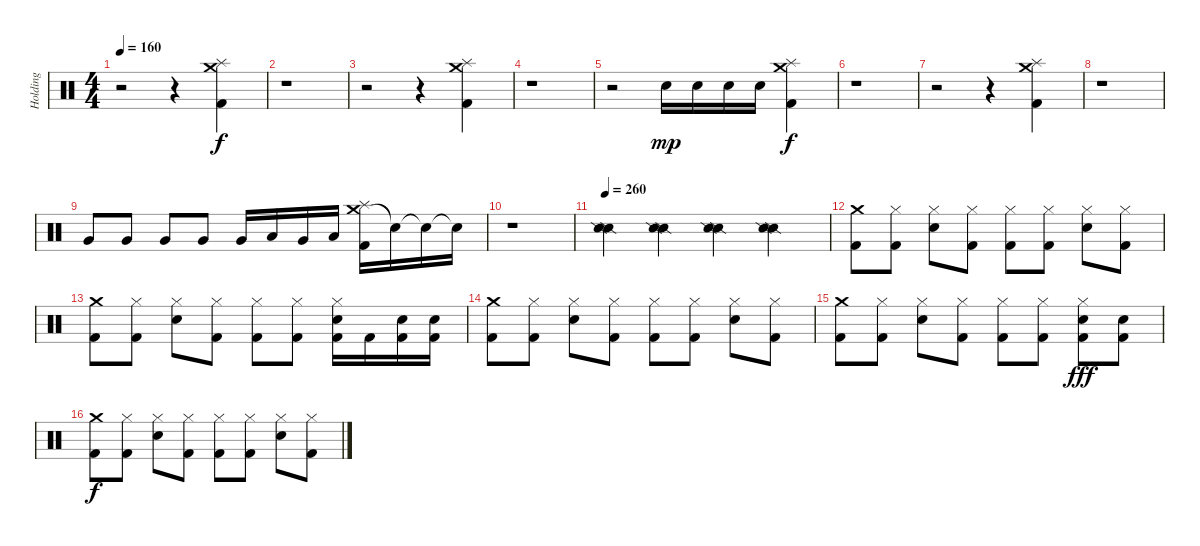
\track ("Holding" "Holding") {instrument percussion}
\staff {score}
\articulation defaults
\ts (4 4)
\tempo 160
\clef neutral
\ks c
r.2{dy f} r.4 ("Crash medium (hit)" "Splash (hit)" "Kick (hit) 2").4 |
r.1 |
r.2 r.4 ("Crash medium (hit)" "Splash (hit)" "Kick (hit) 2").4 |
r.1 |
r.2 "Electric Snare (hit)".16{dy mp} "Electric Snare (hit)".16 "Electric Snare (hit)".16 "Electric Snare (hit)".16 ("Crash medium (hit)" "Splash (hit)" "Kick (hit) 2").4{dy f} |
r.1 |
r.2 r.4 ("Crash medium (hit)" "Splash (hit)" "Kick (hit) 2").4 |
r.1 |
"Very Low Tom (hit)".8 "Very Low Tom (hit)".8 "Very Low Tom (hit)".8 "Very Low Tom (hit)".8 "Very Low Tom (hit)".16 "Low Tom (hit)".16 "Very Low Tom (hit)".16 "Low Tom (hit)".16 ("Crash medium (hit)" "Splash (hit)" "Kick (hit) 2").16 "Snare (hit)"{t}.16 "Snare (hit)"{t}.16 "Snare (hit)"{t}.16 |
r.1 |
\tempo 260
("Snare (side stick) 2" "Snare (side stick) 2").4 ("Snare (side stick) 2" "Snare (side stick) 2").4 ("Snare (side stick) 2" "Snare (side stick) 2").4 ("Snare (side stick) 2" "Snare (side stick) 2").4 |
("Crash medium (hit)" "Kick (hit) 2").8 ("Hi-Hat (closed)" "Kick (hit) 2").8 ("Hi-Hat (closed)" "Electric Snare (hit)").8 ("Hi-Hat (closed)" "Kick (hit) 2").8 ("Hi-Hat (closed)" "Kick (hit) 2").8 ("Hi-Hat (closed)" "Kick (hit) 2").8 ("Hi-Hat (closed)" "Electric Snare (hit)").8 ("Hi-Hat (closed)" "Kick (hit) 2").8 |
("Crash medium (hit)" "Kick (hit) 2").8 ("Hi-Hat (closed)" "Kick (hit) 2").8 ("Hi-Hat (closed)" "Electric Snare (hit)").8 ("Hi-Hat (closed)" "Kick (hit) 2").8 ("Hi-Hat (closed)" "Kick (hit) 2").8 ("Hi-Hat (closed)" "Kick (hit) 2").8 ("Hi-Hat (closed)" "Electric Snare (hit)" "Kick (hit) 2").16 "Kick (hit) 2".16 ("Electric Snare (hit)" "Kick (hit) 2").16 ("Electric Snare (hit)" "Kick (hit) 2").16 |
("Crash medium (hit)" "Kick (hit) 2").8 ("Hi-Hat (closed)" "Kick (hit) 2").8 ("Hi-Hat (closed)" "Electric Snare (hit)").8 ("Hi-Hat (closed)" "Kick (hit) 2").8 ("Hi-Hat (closed)" "Kick (hit) 2").8 ("Hi-Hat (closed)" "Kick (hit) 2").8 ("Hi-Hat (closed)" "Electric Snare (hit)").8 ("Hi-Hat (closed)" "Kick (hit) 2").8 |
("Crash medium (hit)" "Kick (hit) 2").8 ("Hi-Hat (closed)" "Kick (hit) 2").8 ("Hi-Hat (closed)" "Electric Snare (hit)").8 ("Hi-Hat (closed)" "Kick (hit) 2").8 ("Hi-Hat (closed)" "Kick (hit) 2").8 ("Hi-Hat (closed)" "Kick (hit) 2").8 ("Hi-Hat (closed)" "Electric Snare (hit)" "Kick (hit) 2").8{dy fff} ("Electric Snare (hit)" "Kick (hit) 2").8 |
("Crash medium (hit)" "Kick (hit) 2").8{dy f} ("Hi-Hat (closed)" "Kick (hit) 2").8 ("Hi-Hat (closed)" "Electric Snare (hit)").8 ("Hi-Hat (closed)" "Kick (hit) 2").8 ("Hi-Hat (closed)" "Kick (hit) 2").8 ("Hi-Hat (closed)" "Kick (hit) 2").8 ("Hi-Hat (closed)" "Electric Snare (hit)").8 ("Hi-Hat (closed)" "Kick (hit) 2").8
